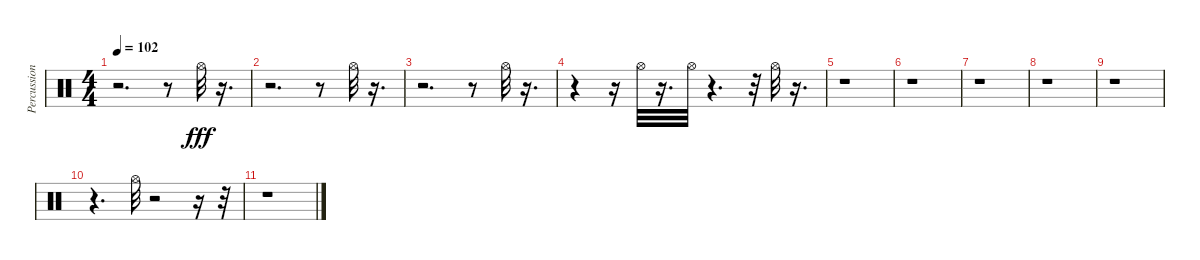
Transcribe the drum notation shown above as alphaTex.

\track ("Percussion" "Percussion") {instrument percussion}
\staff {score}
\articulation defaults
\ts (4 4)
\tempo 102
\clef neutral
\ks c
r.2{d dy fff} r.8 "Hi-Hat (open)".32 r.16{d} |
r.2{d} r.8 "Hi-Hat (open)".32 r.16{d} |
r.2{d} r.8 "Hi-Hat (open)".32 r.16{d} |
r.4 r.16 "Hi-Hat (open)".32 r.16{d} "Hi-Hat (open)".32 r.4{d} r.32 "Hi-Hat (open)".32 r.16{d} |
r.1 |
r.1 |
r.1 |
r.1 |
r.1 |
r.4{d} "Hi-Hat (open)".32 r.2 r.16 r.32 |
r.1
